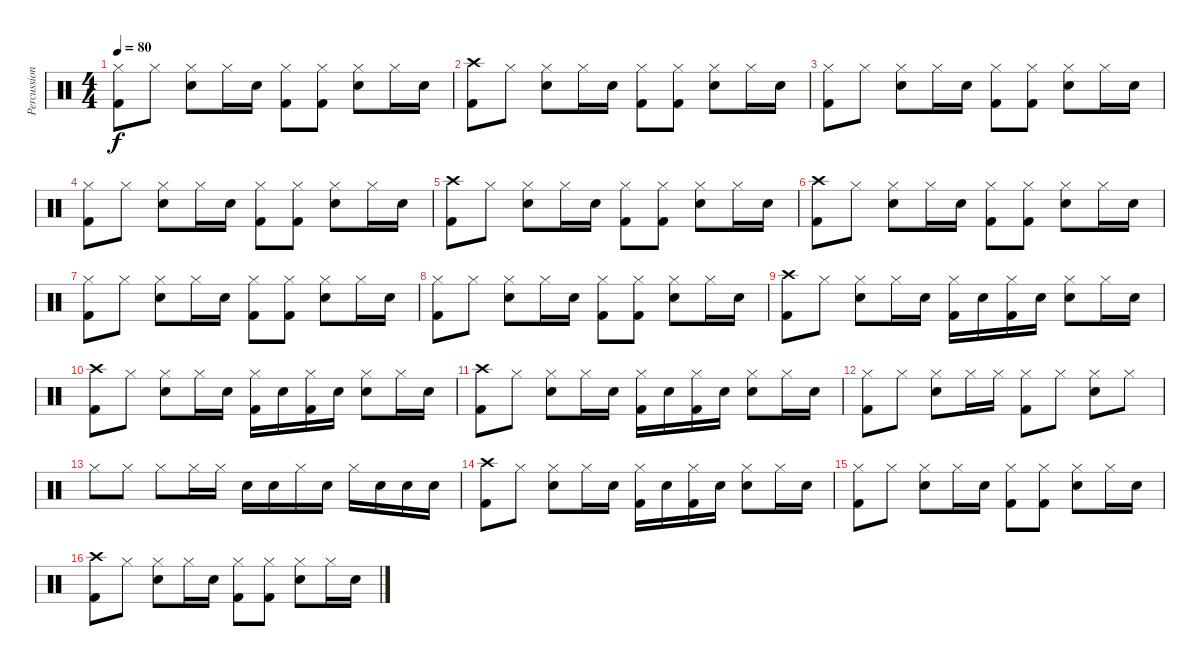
\track ("Percussion" "Percussion") {instrument percussion}
\staff {score}
\articulation defaults
\ts (4 4)
\tempo 80
\clef neutral
\ks c
("Kick (hit) 2" "Hi-Hat (closed)").8{dy f} "Hi-Hat (closed)".8 ("Snare (hit) 2" "Hi-Hat (closed)").8 "Hi-Hat (closed)".16 "Snare (hit) 2".16 ("Kick (hit) 2" "Hi-Hat (closed)").8 ("Kick (hit) 2" "Hi-Hat (closed)").8 ("Snare (hit) 2" "Hi-Hat (closed)").8 "Hi-Hat (closed)".16 "Snare (hit) 2".16 |
("Kick (hit) 2" "Crash high (hit)").8 "Hi-Hat (closed)".8 ("Snare (hit) 2" "Hi-Hat (closed)").8 "Hi-Hat (closed)".16 "Snare (hit) 2".16 ("Kick (hit) 2" "Hi-Hat (closed)").8 ("Kick (hit) 2" "Hi-Hat (closed)").8 ("Snare (hit) 2" "Hi-Hat (closed)").8 "Hi-Hat (closed)".16 "Snare (hit) 2".16 |
("Kick (hit) 2" "Hi-Hat (closed)").8 "Hi-Hat (closed)".8 ("Snare (hit) 2" "Hi-Hat (closed)").8 "Hi-Hat (closed)".16 "Snare (hit) 2".16 ("Kick (hit) 2" "Hi-Hat (closed)").8 ("Kick (hit) 2" "Hi-Hat (closed)").8 ("Snare (hit) 2" "Hi-Hat (closed)").8 "Hi-Hat (closed)".16 "Snare (hit) 2".16 |
("Kick (hit) 2" "Hi-Hat (closed)").8 "Hi-Hat (closed)".8 ("Snare (hit) 2" "Hi-Hat (closed)").8 "Hi-Hat (closed)".16 "Snare (hit) 2".16 ("Kick (hit) 2" "Hi-Hat (closed)").8 ("Kick (hit) 2" "Hi-Hat (closed)").8 ("Snare (hit) 2" "Hi-Hat (closed)").8 "Hi-Hat (closed)".16 "Snare (hit) 2".16 |
("Kick (hit) 2" "Crash high (hit)").8 "Hi-Hat (closed)".8 ("Snare (hit) 2" "Hi-Hat (closed)").8 "Hi-Hat (closed)".16 "Snare (hit) 2".16 ("Kick (hit) 2" "Hi-Hat (closed)").8 ("Kick (hit) 2" "Hi-Hat (closed)").8 ("Snare (hit) 2" "Hi-Hat (closed)").8 "Hi-Hat (closed)".16 "Snare (hit) 2".16 |
("Kick (hit) 2" "Crash high (hit)").8 "Hi-Hat (closed)".8 ("Snare (hit) 2" "Hi-Hat (closed)").8 "Hi-Hat (closed)".16 "Snare (hit) 2".16 ("Kick (hit) 2" "Hi-Hat (closed)").8 ("Kick (hit) 2" "Hi-Hat (closed)").8 ("Snare (hit) 2" "Hi-Hat (closed)").8 "Hi-Hat (closed)".16 "Snare (hit) 2".16 |
("Kick (hit) 2" "Hi-Hat (closed)").8 "Hi-Hat (closed)".8 ("Snare (hit) 2" "Hi-Hat (closed)").8 "Hi-Hat (closed)".16 "Snare (hit) 2".16 ("Kick (hit) 2" "Hi-Hat (closed)").8 ("Kick (hit) 2" "Hi-Hat (closed)").8 ("Snare (hit) 2" "Hi-Hat (closed)").8 "Hi-Hat (closed)".16 "Snare (hit) 2".16 |
("Kick (hit) 2" "Hi-Hat (closed)").8 "Hi-Hat (closed)".8 ("Snare (hit) 2" "Hi-Hat (closed)").8 "Hi-Hat (closed)".16 "Snare (hit) 2".16 ("Kick (hit) 2" "Hi-Hat (closed)").8 ("Kick (hit) 2" "Hi-Hat (closed)").8 ("Snare (hit) 2" "Hi-Hat (closed)").8 "Hi-Hat (closed)".16 "Snare (hit) 2".16 |
("Kick (hit) 2" "Crash high (hit)").8 "Hi-Hat (closed)".8 ("Snare (hit) 2" "Hi-Hat (closed)").8 "Hi-Hat (closed)".16 "Snare (hit) 2".16 ("Kick (hit) 2" "Hi-Hat (closed)").16 "Snare (hit) 2".16 ("Kick (hit) 2" "Hi-Hat (closed)").16 "Snare (hit) 2".16 ("Snare (hit) 2" "Hi-Hat (closed)").8 "Hi-Hat (closed)".16 "Snare (hit) 2".16 |
("Kick (hit) 2" "Crash high (hit)").8 "Hi-Hat (closed)".8 ("Snare (hit) 2" "Hi-Hat (closed)").8 "Hi-Hat (closed)".16 "Snare (hit) 2".16 ("Kick (hit) 2" "Hi-Hat (closed)").16 "Snare (hit) 2".16 ("Kick (hit) 2" "Hi-Hat (closed)").16 "Snare (hit) 2".16 ("Snare (hit) 2" "Hi-Hat (closed)").8 "Hi-Hat (closed)".16 "Snare (hit) 2".16 |
("Kick (hit) 2" "Crash high (hit)").8 "Hi-Hat (closed)".8 ("Snare (hit) 2" "Hi-Hat (closed)").8 "Hi-Hat (closed)".16 "Snare (hit) 2".16 ("Kick (hit) 2" "Hi-Hat (closed)").16 "Snare (hit) 2".16 ("Kick (hit) 2" "Hi-Hat (closed)").16 "Snare (hit) 2".16 ("Snare (hit) 2" "Hi-Hat (closed)").8 "Hi-Hat (closed)".16 "Snare (hit) 2".16 |
("Kick (hit) 2" "Hi-Hat (closed)").8 "Hi-Hat (closed)".8 ("Snare (hit) 2" "Hi-Hat (closed)").8 "Hi-Hat (closed)".16 "Hi-Hat (closed)".16 ("Kick (hit) 2" "Hi-Hat (closed)").8 "Hi-Hat (closed)".8 ("Snare (hit) 2" "Hi-Hat (closed)").8 "Hi-Hat (closed)".8 |
"Hi-Hat (closed)".8 "Hi-Hat (closed)".8 "Hi-Hat (closed)".8 "Hi-Hat (closed)".16 "Hi-Hat (closed)".16 "Snare (hit) 2".16 "Snare (hit) 2".16 "Hi-Hat (closed)".16 "Snare (hit) 2".16 "Hi-Hat (closed)".16 "Snare (hit) 2".16 "Snare (hit) 2".16 "Snare (hit) 2".16 |
("Kick (hit) 2" "Crash high (hit)").8 "Hi-Hat (closed)".8 ("Snare (hit) 2" "Hi-Hat (closed)").8 "Hi-Hat (closed)".16 "Snare (hit) 2".16 ("Kick (hit) 2" "Hi-Hat (closed)").16 "Snare (hit) 2".16 ("Kick (hit) 2" "Hi-Hat (closed)").16 "Snare (hit) 2".16 ("Snare (hit) 2" "Hi-Hat (closed)").8 "Hi-Hat (closed)".16 "Snare (hit) 2".16 |
("Kick (hit) 2" "Hi-Hat (closed)").8 "Hi-Hat (closed)".8 ("Snare (hit) 2" "Hi-Hat (closed)").8 "Hi-Hat (closed)".16 "Snare (hit) 2".16 ("Kick (hit) 2" "Hi-Hat (closed)").8 ("Kick (hit) 2" "Hi-Hat (closed)").8 ("Snare (hit) 2" "Hi-Hat (closed)").8 "Hi-Hat (closed)".16 "Snare (hit) 2".16 |
("Kick (hit) 2" "Crash high (hit)").8 "Hi-Hat (closed)".8 ("Snare (hit) 2" "Hi-Hat (closed)").8 "Hi-Hat (closed)".16 "Snare (hit) 2".16 ("Kick (hit) 2" "Hi-Hat (closed)").8 ("Kick (hit) 2" "Hi-Hat (closed)").8 ("Snare (hit) 2" "Hi-Hat (closed)").8 "Hi-Hat (closed)".16 "Snare (hit) 2".16
